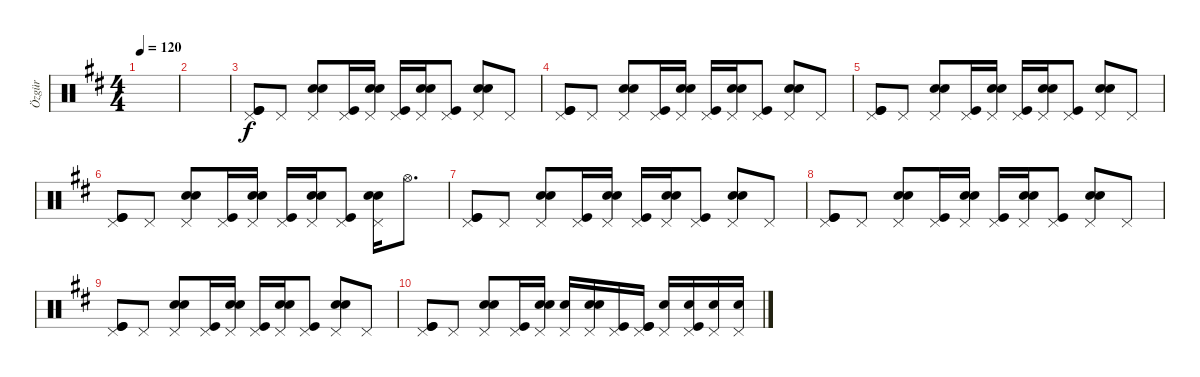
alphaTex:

\track ("Özgür" "Özgür") {instrument percussion}
\staff {score}
\articulation defaults
\ts (4 4)
\tempo 120
\clef neutral
\ks d
|
|
("Pedal Hi-Hat (hit)" "Kick (hit)" "Kick (hit)").8 "Pedal Hi-Hat (hit)".8 ("Pedal Hi-Hat (hit)" "Electric Snare (hit)" "Electric Snare (hit)").8 ("Pedal Hi-Hat (hit)" "Kick (hit)").16 ("Pedal Hi-Hat (hit)" "Electric Snare (hit)" "Electric Snare (hit)").16 ("Pedal Hi-Hat (hit)" "Kick (hit)").16 ("Pedal Hi-Hat (hit)" "Electric Snare (hit)" "Electric Snare (hit)").16 ("Pedal Hi-Hat (hit)" "Kick (hit)").8 ("Pedal Hi-Hat (hit)" "Electric Snare (hit)" "Electric Snare (hit)").8 "Pedal Hi-Hat (hit)".8 |
("Pedal Hi-Hat (hit)" "Kick (hit)" "Kick (hit)").8 "Pedal Hi-Hat (hit)".8 ("Pedal Hi-Hat (hit)" "Electric Snare (hit)" "Electric Snare (hit)").8 ("Pedal Hi-Hat (hit)" "Kick (hit)").16 ("Pedal Hi-Hat (hit)" "Electric Snare (hit)" "Electric Snare (hit)").16 ("Pedal Hi-Hat (hit)" "Kick (hit)").16 ("Pedal Hi-Hat (hit)" "Electric Snare (hit)" "Electric Snare (hit)").16 ("Pedal Hi-Hat (hit)" "Kick (hit)").8 ("Pedal Hi-Hat (hit)" "Electric Snare (hit)" "Electric Snare (hit)").8 "Pedal Hi-Hat (hit)".8 |
("Pedal Hi-Hat (hit)" "Kick (hit)" "Kick (hit)").8 "Pedal Hi-Hat (hit)".8 ("Pedal Hi-Hat (hit)" "Electric Snare (hit)" "Electric Snare (hit)").8 ("Pedal Hi-Hat (hit)" "Kick (hit)").16 ("Pedal Hi-Hat (hit)" "Electric Snare (hit)" "Electric Snare (hit)").16 ("Pedal Hi-Hat (hit)" "Kick (hit)").16 ("Pedal Hi-Hat (hit)" "Electric Snare (hit)" "Electric Snare (hit)").16 ("Pedal Hi-Hat (hit)" "Kick (hit)").8 ("Pedal Hi-Hat (hit)" "Electric Snare (hit)" "Electric Snare (hit)").8 "Pedal Hi-Hat (hit)".8 |
("Pedal Hi-Hat (hit)" "Kick (hit)" "Kick (hit)").8 "Pedal Hi-Hat (hit)".8 ("Pedal Hi-Hat (hit)" "Electric Snare (hit)" "Electric Snare (hit)").8 ("Pedal Hi-Hat (hit)" "Kick (hit)").16 ("Pedal Hi-Hat (hit)" "Electric Snare (hit)" "Electric Snare (hit)").16 ("Pedal Hi-Hat (hit)" "Kick (hit)").16 ("Pedal Hi-Hat (hit)" "Electric Snare (hit)" "Electric Snare (hit)").16 ("Pedal Hi-Hat (hit)" "Kick (hit)").8 ("Pedal Hi-Hat (hit)" "Electric Snare (hit)" "Electric Snare (hit)").16 "Hi-Hat (open)".8{d} |
("Pedal Hi-Hat (hit)" "Kick (hit)" "Kick (hit)").8 "Pedal Hi-Hat (hit)".8 ("Pedal Hi-Hat (hit)" "Electric Snare (hit)" "Electric Snare (hit)").8 ("Pedal Hi-Hat (hit)" "Kick (hit)").16 ("Pedal Hi-Hat (hit)" "Electric Snare (hit)" "Electric Snare (hit)").16 ("Pedal Hi-Hat (hit)" "Kick (hit)").16 ("Pedal Hi-Hat (hit)" "Electric Snare (hit)" "Electric Snare (hit)").16 ("Pedal Hi-Hat (hit)" "Kick (hit)").8 ("Pedal Hi-Hat (hit)" "Electric Snare (hit)" "Electric Snare (hit)").8 "Pedal Hi-Hat (hit)".8 |
("Pedal Hi-Hat (hit)" "Kick (hit)" "Kick (hit)").8 "Pedal Hi-Hat (hit)".8 ("Pedal Hi-Hat (hit)" "Electric Snare (hit)" "Electric Snare (hit)").8 ("Pedal Hi-Hat (hit)" "Kick (hit)").16 ("Pedal Hi-Hat (hit)" "Electric Snare (hit)" "Electric Snare (hit)").16 ("Pedal Hi-Hat (hit)" "Kick (hit)").16 ("Pedal Hi-Hat (hit)" "Electric Snare (hit)" "Electric Snare (hit)").16 ("Pedal Hi-Hat (hit)" "Kick (hit)").8 ("Pedal Hi-Hat (hit)" "Electric Snare (hit)" "Electric Snare (hit)").8 "Pedal Hi-Hat (hit)".8 |
("Pedal Hi-Hat (hit)" "Kick (hit)" "Kick (hit)").8 "Pedal Hi-Hat (hit)".8 ("Pedal Hi-Hat (hit)" "Electric Snare (hit)" "Electric Snare (hit)").8 ("Pedal Hi-Hat (hit)" "Kick (hit)").16 ("Pedal Hi-Hat (hit)" "Electric Snare (hit)" "Electric Snare (hit)").16 ("Pedal Hi-Hat (hit)" "Kick (hit)").16 ("Pedal Hi-Hat (hit)" "Electric Snare (hit)" "Electric Snare (hit)").16 ("Pedal Hi-Hat (hit)" "Kick (hit)").8 ("Pedal Hi-Hat (hit)" "Electric Snare (hit)" "Electric Snare (hit)").8 "Pedal Hi-Hat (hit)".8 |
("Pedal Hi-Hat (hit)" "Kick (hit)" "Kick (hit)").8 "Pedal Hi-Hat (hit)".8 ("Pedal Hi-Hat (hit)" "Electric Snare (hit)" "Electric Snare (hit)").8 ("Pedal Hi-Hat (hit)" "Kick (hit)").16 ("Pedal Hi-Hat (hit)" "Electric Snare (hit)" "Electric Snare (hit)").16 ("Pedal Hi-Hat (hit)" "Electric Snare (hit)").16 ("Pedal Hi-Hat (hit)" "Electric Snare (hit)" "Electric Snare (hit)").16 ("Pedal Hi-Hat (hit)" "Kick (hit)").16 ("Pedal Hi-Hat (hit)" "Kick (hit)" "Kick (hit)").16 ("Pedal Hi-Hat (hit)" "Electric Snare (hit)").16 ("Pedal Hi-Hat (hit)" "Kick (hit)" "Electric Snare (hit)").16 ("Pedal Hi-Hat (hit)" "Electric Snare (hit)").16 ("Pedal Hi-Hat (hit)" "Electric Snare (hit)").16
